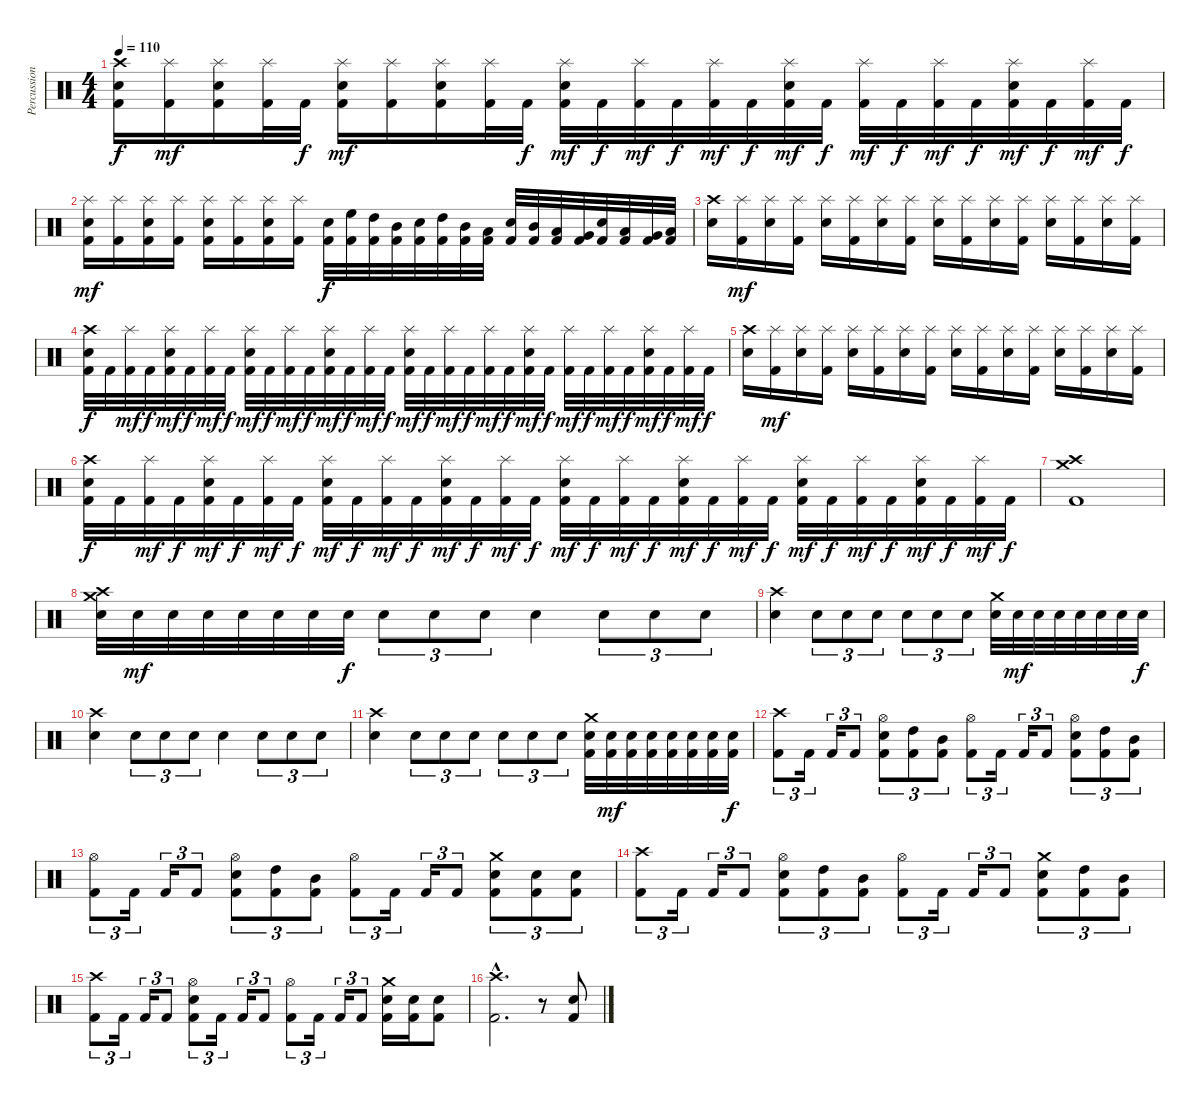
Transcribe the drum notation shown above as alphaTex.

\track ("Percussion" "Percussion") {instrument percussion}
\staff {score}
\articulation defaults
\ts (4 4)
\tempo 110
\clef neutral
\ks c
("Crash high (hit)" "Snare (hit) 2" "Kick (hit) 2").16{dy f} ("Splash (hit)" "Kick (hit) 2").16{dy mf} ("Splash (hit)" "Snare (hit) 2" "Kick (hit) 2").16 ("Splash (hit)" "Kick (hit) 2").32 "Kick (hit) 2".32{dy f} ("Splash (hit)" "Snare (hit) 2" "Kick (hit) 2").16{dy mf} ("Splash (hit)" "Kick (hit) 2").16 ("Splash (hit)" "Snare (hit) 2" "Kick (hit) 2").16 ("Splash (hit)" "Kick (hit) 2").32 "Kick (hit) 2".32{dy f} ("Splash (hit)" "Snare (hit) 2" "Kick (hit) 2").32{dy mf} "Kick (hit) 2".32{dy f} ("Splash (hit)" "Kick (hit) 2").32{dy mf} "Kick (hit) 2".32{dy f} ("Splash (hit)" "Kick (hit) 2").32{dy mf} "Kick (hit) 2".32{dy f} ("Splash (hit)" "Snare (hit) 2" "Kick (hit) 2").32{dy mf} "Kick (hit) 2".32{dy f} ("Splash (hit)" "Kick (hit) 2").32{dy mf} "Kick (hit) 2".32{dy f} ("Splash (hit)" "Kick (hit) 2").32{dy mf} "Kick (hit) 2".32{dy f} ("Splash (hit)" "Snare (hit) 2" "Kick (hit) 2").32{dy mf} "Kick (hit) 2".32{dy f} ("Splash (hit)" "Kick (hit) 2").32{dy mf} "Kick (hit) 2".32{dy f} |
("Splash (hit)" "Snare (hit) 2" "Kick (hit) 2").16{dy mf} ("Splash (hit)" "Kick (hit) 2").16 ("Splash (hit)" "Snare (hit) 2" "Kick (hit) 2").16 ("Splash (hit)" "Kick (hit) 2").16 ("Splash (hit)" "Snare (hit) 2" "Kick (hit) 2").16 ("Splash (hit)" "Kick (hit) 2").16 ("Splash (hit)" "Snare (hit) 2" "Kick (hit) 2").16 ("Splash (hit)" "Kick (hit) 2").16 ("Snare (hit) 2" "Kick (hit) 2").32{dy f} ("High Floor Tom (hit)" "Kick (hit) 2").32 ("High Tom (hit)" "Kick (hit) 2").32 ("Mid Tom (hit)" "Kick (hit) 2").32 ("Snare (hit) 2" "Kick (hit) 2").32 ("High Tom (hit)" "Kick (hit) 2").32 ("Mid Tom (hit)" "Kick (hit) 2").32 ("Low Tom (hit)" "Kick (hit) 2").32 ("Snare (hit) 2" "Kick (hit) 2").32 ("Mid Tom (hit)" "Kick (hit) 2").32 ("Low Tom (hit)" "Kick (hit) 2").32 ("Very Low Tom (hit)" "Kick (hit) 2").32 ("Snare (hit) 2" "Kick (hit) 2").32 ("Low Tom (hit)" "Kick (hit) 2").32 ("Very Low Tom (hit)" "Kick (hit) 2").32 ("Low Floor Tom (hit)" "Kick (hit) 2").32 |
("Crash high (hit)" "Snare (hit) 2").16 ("Splash (hit)" "Kick (hit) 2").16{dy mf} ("Splash (hit)" "Snare (hit) 2").16 ("Splash (hit)" "Kick (hit) 2").16 ("Splash (hit)" "Snare (hit) 2").16 ("Splash (hit)" "Kick (hit) 2").16 ("Splash (hit)" "Snare (hit) 2").16 ("Splash (hit)" "Kick (hit) 2").16 ("Splash (hit)" "Snare (hit) 2").16 ("Splash (hit)" "Kick (hit) 2").16 ("Splash (hit)" "Snare (hit) 2").16 ("Splash (hit)" "Kick (hit) 2").16 ("Splash (hit)" "Snare (hit) 2").16 ("Splash (hit)" "Kick (hit) 2").16 ("Splash (hit)" "Snare (hit) 2").16 ("Splash (hit)" "Kick (hit) 2").16 |
("Crash high (hit)" "Snare (hit) 2" "Kick (hit) 2").32{dy f} "Kick (hit) 2".32 ("Splash (hit)" "Kick (hit) 2").32{dy mf} "Kick (hit) 2".32{dy f} ("Splash (hit)" "Snare (hit) 2" "Kick (hit) 2").32{dy mf} "Kick (hit) 2".32{dy f} ("Splash (hit)" "Kick (hit) 2").32{dy mf} "Kick (hit) 2".32{dy f} ("Splash (hit)" "Snare (hit) 2" "Kick (hit) 2").32{dy mf} "Kick (hit) 2".32{dy f} ("Splash (hit)" "Kick (hit) 2").32{dy mf} "Kick (hit) 2".32{dy f} ("Splash (hit)" "Snare (hit) 2" "Kick (hit) 2").32{dy mf} "Kick (hit) 2".32{dy f} ("Splash (hit)" "Kick (hit) 2").32{dy mf} "Kick (hit) 2".32{dy f} ("Splash (hit)" "Snare (hit) 2" "Kick (hit) 2").32{dy mf} "Kick (hit) 2".32{dy f} ("Splash (hit)" "Kick (hit) 2").32{dy mf} "Kick (hit) 2".32{dy f} ("Splash (hit)" "Kick (hit) 2").32{dy mf} "Kick (hit) 2".32{dy f} ("Splash (hit)" "Snare (hit) 2" "Kick (hit) 2").32{dy mf} "Kick (hit) 2".32{dy f} ("Splash (hit)" "Kick (hit) 2").32{dy mf} "Kick (hit) 2".32{dy f} ("Splash (hit)" "Kick (hit) 2").32{dy mf} "Kick (hit) 2".32{dy f} ("Splash (hit)" "Snare (hit) 2" "Kick (hit) 2").32{dy mf} "Kick (hit) 2".32{dy f} ("Splash (hit)" "Kick (hit) 2").32{dy mf} "Kick (hit) 2".32{dy f} |
("Crash high (hit)" "Snare (hit) 2").16 ("Splash (hit)" "Kick (hit) 2").16{dy mf} ("Splash (hit)" "Snare (hit) 2").16 ("Splash (hit)" "Kick (hit) 2").16 ("Splash (hit)" "Snare (hit) 2").16 ("Splash (hit)" "Kick (hit) 2").16 ("Splash (hit)" "Snare (hit) 2").16 ("Splash (hit)" "Kick (hit) 2").16 ("Splash (hit)" "Snare (hit) 2").16 ("Splash (hit)" "Kick (hit) 2").16 ("Splash (hit)" "Snare (hit) 2").16 ("Splash (hit)" "Kick (hit) 2").16 ("Splash (hit)" "Snare (hit) 2").16 ("Splash (hit)" "Kick (hit) 2").16 ("Splash (hit)" "Snare (hit) 2").16 ("Splash (hit)" "Kick (hit) 2").16 |
("Crash high (hit)" "Snare (hit) 2" "Kick (hit) 2").32{dy f} "Kick (hit) 2".32 ("Splash (hit)" "Kick (hit) 2").32{dy mf} "Kick (hit) 2".32{dy f} ("Splash (hit)" "Snare (hit) 2" "Kick (hit) 2").32{dy mf} "Kick (hit) 2".32{dy f} ("Splash (hit)" "Kick (hit) 2").32{dy mf} "Kick (hit) 2".32{dy f} ("Splash (hit)" "Snare (hit) 2" "Kick (hit) 2").32{dy mf} "Kick (hit) 2".32{dy f} ("Splash (hit)" "Kick (hit) 2").32{dy mf} "Kick (hit) 2".32{dy f} ("Splash (hit)" "Snare (hit) 2" "Kick (hit) 2").32{dy mf} "Kick (hit) 2".32{dy f} ("Splash (hit)" "Kick (hit) 2").32{dy mf} "Kick (hit) 2".32{dy f} ("Splash (hit)" "Snare (hit) 2" "Kick (hit) 2").32{dy mf} "Kick (hit) 2".32{dy f} ("Splash (hit)" "Kick (hit) 2").32{dy mf} "Kick (hit) 2".32{dy f} ("Splash (hit)" "Snare (hit) 2" "Kick (hit) 2").32{dy mf} "Kick (hit) 2".32{dy f} ("Splash (hit)" "Kick (hit) 2").32{dy mf} "Kick (hit) 2".32{dy f} ("Splash (hit)" "Snare (hit) 2" "Kick (hit) 2").32{dy mf} "Kick (hit) 2".32{dy f} ("Splash (hit)" "Kick (hit) 2").32{dy mf} "Kick (hit) 2".32{dy f} ("Splash (hit)" "Snare (hit) 2" "Kick (hit) 2").32{dy mf} "Kick (hit) 2".32{dy f} ("Splash (hit)" "Kick (hit) 2").32{dy mf} "Kick (hit) 2".32{dy f} |
("Crash medium (hit)" "Crash high (hit)" "Kick (hit) 2").1 |
\section ("" "")
("Crash high (hit)" "Crash medium (hit)" "Snare (hit) 2").32 "Snare (hit) 2".32{dy mf} "Snare (hit) 2".32 "Snare (hit) 2".32 "Snare (hit) 2".32 "Snare (hit) 2".32 "Snare (hit) 2".32 "Snare (hit) 2".32{dy f} "Snare (hit) 2".8{tu (3 2)} "Snare (hit) 2".8{tu (3 2)} "Snare (hit) 2".8{tu (3 2)} "Snare (hit) 2".4 "Snare (hit) 2".8{tu (3 2)} "Snare (hit) 2".8{tu (3 2)} "Snare (hit) 2".8{tu (3 2)} |
("Crash high (hit)" "Snare (hit) 2").4 "Snare (hit) 2".8{tu (3 2)} "Snare (hit) 2".8{tu (3 2)} "Snare (hit) 2".8{tu (3 2)} "Snare (hit) 2".8{tu (3 2)} "Snare (hit) 2".8{tu (3 2)} "Snare (hit) 2".8{tu (3 2)} ("Crash medium (hit)" "Snare (hit) 2").32 "Snare (hit) 2".32{dy mf} "Snare (hit) 2".32 "Snare (hit) 2".32 "Snare (hit) 2".32 "Snare (hit) 2".32 "Snare (hit) 2".32 "Snare (hit) 2".32{dy f} |
("Crash high (hit)" "Snare (hit) 2").4 "Snare (hit) 2".8{tu (3 2)} "Snare (hit) 2".8{tu (3 2)} "Snare (hit) 2".8{tu (3 2)} "Snare (hit) 2".4 "Snare (hit) 2".8{tu (3 2)} "Snare (hit) 2".8{tu (3 2)} "Snare (hit) 2".8{tu (3 2)} |
("Crash high (hit)" "Snare (hit) 2").4 "Snare (hit) 2".8{tu (3 2)} "Snare (hit) 2".8{tu (3 2)} "Snare (hit) 2".8{tu (3 2)} "Snare (hit) 2".8{tu (3 2)} "Snare (hit) 2".8{tu (3 2)} "Snare (hit) 2".8{tu (3 2)} ("Crash medium (hit)" "Snare (hit) 2" "Kick (hit) 2").32 ("Snare (hit) 2" "Kick (hit) 2").32{dy mf} ("Snare (hit) 2" "Kick (hit) 2").32 ("Snare (hit) 2" "Kick (hit) 2").32 ("Snare (hit) 2" "Kick (hit) 2").32 ("Snare (hit) 2" "Kick (hit) 2").32 ("Snare (hit) 2" "Kick (hit) 2").32 ("Snare (hit) 2" "Kick (hit) 2").32{dy f} |
("Crash high (hit)" "Kick (hit) 2").8{tu (3 2)} "Kick (hit) 2".16{tu (3 2)} "Kick (hit) 2".16{tu (3 2)} "Kick (hit) 2".8{tu (3 2)} ("Hi-Hat (open)" "Snare (hit) 2" "Kick (hit) 2").8{tu (3 2)} ("High Tom (hit)" "Kick (hit) 2").8{tu (3 2)} ("Mid Tom (hit)" "Kick (hit) 2").8{tu (3 2)} ("Hi-Hat (open)" "Kick (hit) 2").8{tu (3 2)} "Kick (hit) 2".16{tu (3 2)} "Kick (hit) 2".16{tu (3 2)} "Kick (hit) 2".8{tu (3 2)} ("Hi-Hat (open)" "Snare (hit) 2" "Kick (hit) 2").8{tu (3 2)} ("High Tom (hit)" "Kick (hit) 2").8{tu (3 2)} ("Mid Tom (hit)" "Kick (hit) 2").8{tu (3 2)} |
("Hi-Hat (open)" "Kick (hit) 2").8{tu (3 2)} "Kick (hit) 2".16{tu (3 2)} "Kick (hit) 2".16{tu (3 2)} "Kick (hit) 2".8{tu (3 2)} ("Hi-Hat (open)" "Snare (hit) 2" "Kick (hit) 2").8{tu (3 2)} ("High Tom (hit)" "Kick (hit) 2").8{tu (3 2)} ("Mid Tom (hit)" "Kick (hit) 2").8{tu (3 2)} ("Hi-Hat (open)" "Kick (hit) 2").8{tu (3 2)} "Kick (hit) 2".16{tu (3 2)} "Kick (hit) 2".16{tu (3 2)} "Kick (hit) 2".8{tu (3 2)} ("Crash medium (hit)" "Snare (hit) 2" "Kick (hit) 2").8{tu (3 2)} ("Snare (hit) 2" "Kick (hit) 2").8{tu (3 2)} ("Snare (hit) 2" "Kick (hit) 2").8{tu (3 2)} |
("Crash high (hit)" "Kick (hit) 2").8{tu (3 2)} "Kick (hit) 2".16{tu (3 2)} "Kick (hit) 2".16{tu (3 2)} "Kick (hit) 2".8{tu (3 2)} ("Hi-Hat (open)" "Snare (hit) 2" "Kick (hit) 2").8{tu (3 2)} ("High Tom (hit)" "Kick (hit) 2").8{tu (3 2)} ("Mid Tom (hit)" "Kick (hit) 2").8{tu (3 2)} ("Hi-Hat (open)" "Kick (hit) 2").8{tu (3 2)} "Kick (hit) 2".16{tu (3 2)} "Kick (hit) 2".16{tu (3 2)} "Kick (hit) 2".8{tu (3 2)} ("Crash medium (hit)" "Snare (hit) 2" "Kick (hit) 2").8{tu (3 2)} ("High Tom (hit)" "Kick (hit) 2").8{tu (3 2)} ("Mid Tom (hit)" "Kick (hit) 2").8{tu (3 2)} |
("Crash high (hit)" "Kick (hit) 2").8{tu (3 2)} "Kick (hit) 2".16{tu (3 2)} "Kick (hit) 2".16{tu (3 2)} "Kick (hit) 2".8{tu (3 2)} ("Hi-Hat (open)" "Snare (hit) 2" "Kick (hit) 2").8{tu (3 2)} "Kick (hit) 2".16{tu (3 2)} "Kick (hit) 2".16{tu (3 2)} "Kick (hit) 2".8{tu (3 2)} ("Hi-Hat (open)" "Kick (hit) 2").8{tu (3 2)} "Kick (hit) 2".16{tu (3 2)} "Kick (hit) 2".16{tu (3 2)} "Kick (hit) 2".8{tu (3 2)} ("Crash medium (hit)" "Snare (hit) 2" "Kick (hit) 2").16 ("Snare (hit) 2" "Kick (hit) 2").16 ("Snare (hit) 2" "Kick (hit) 2").8 |
\section ("" "")
("Crash high (hit)"{hac} "Kick (hit) 2"{hac}).2{d} r.8 ("Snare (hit) 2" "Kick (hit) 2").8
